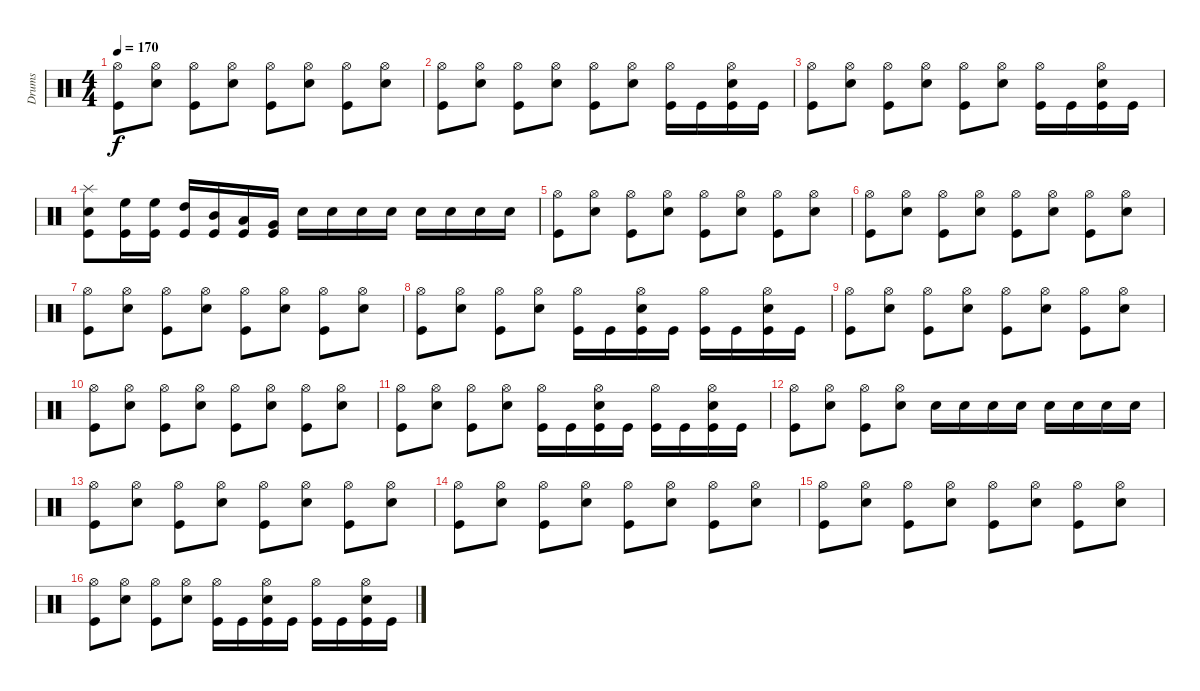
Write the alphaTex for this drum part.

\track ("Drums" "Drums") {instrument percussion}
\staff {score}
\articulation defaults
\ts (4 4)
\tempo 170
\clef neutral
\ks c
("Hi-Hat (open)" "Kick (hit)").8{dy f} ("Hi-Hat (open)" "Snare (hit) 2").8 ("Hi-Hat (open)" "Kick (hit)").8 ("Hi-Hat (open)" "Snare (hit) 2").8 ("Hi-Hat (open)" "Kick (hit)").8 ("Hi-Hat (open)" "Snare (hit) 2").8 ("Hi-Hat (open)" "Kick (hit)").8 ("Hi-Hat (open)" "Snare (hit) 2").8 |
("Hi-Hat (open)" "Kick (hit)").8 ("Hi-Hat (open)" "Snare (hit) 2").8 ("Hi-Hat (open)" "Kick (hit)").8 ("Hi-Hat (open)" "Snare (hit) 2").8 ("Hi-Hat (open)" "Kick (hit)").8 ("Hi-Hat (open)" "Snare (hit) 2").8 ("Hi-Hat (open)" "Kick (hit)").16 "Kick (hit)".16 ("Hi-Hat (open)" "Snare (hit) 2" "Kick (hit)").16 "Kick (hit)".16 |
("Hi-Hat (open)" "Kick (hit)").8 ("Hi-Hat (open)" "Snare (hit) 2").8 ("Hi-Hat (open)" "Kick (hit)").8 ("Hi-Hat (open)" "Snare (hit) 2").8 ("Hi-Hat (open)" "Kick (hit)").8 ("Hi-Hat (open)" "Snare (hit) 2").8 ("Hi-Hat (open)" "Kick (hit)").16 "Kick (hit)".16 ("Hi-Hat (open)" "Snare (hit) 2" "Kick (hit)").16 "Kick (hit)".16 |
("Splash (hit)" "Snare (hit) 2" "Kick (hit)").8 ("High Floor Tom (hit)" "Kick (hit)").16 ("High Floor Tom (hit)" "Kick (hit)").16 ("High Tom (hit)" "Kick (hit)").16 ("Mid Tom (hit)" "Kick (hit)").16 ("Low Tom (hit)" "Kick (hit)").16 ("Very Low Tom (hit)" "Kick (hit)").16 "Snare (hit) 2".16 "Snare (hit) 2".16 "Snare (hit) 2".16 "Snare (hit) 2".16 "Snare (hit) 2".16 "Snare (hit) 2".16 "Snare (hit) 2".16 "Snare (hit) 2".16 |
("Hi-Hat (open)" "Kick (hit)").8 ("Hi-Hat (open)" "Snare (hit) 2").8 ("Hi-Hat (open)" "Kick (hit)").8 ("Hi-Hat (open)" "Snare (hit) 2").8 ("Hi-Hat (open)" "Kick (hit)").8 ("Hi-Hat (open)" "Snare (hit) 2").8 ("Hi-Hat (open)" "Kick (hit)").8 ("Hi-Hat (open)" "Snare (hit) 2").8 |
("Hi-Hat (open)" "Kick (hit)").8 ("Hi-Hat (open)" "Snare (hit) 2").8 ("Hi-Hat (open)" "Kick (hit)").8 ("Hi-Hat (open)" "Snare (hit) 2").8 ("Hi-Hat (open)" "Kick (hit)").8 ("Hi-Hat (open)" "Snare (hit) 2").8 ("Hi-Hat (open)" "Kick (hit)").8 ("Hi-Hat (open)" "Snare (hit) 2").8 |
("Hi-Hat (open)" "Kick (hit)").8 ("Hi-Hat (open)" "Snare (hit) 2").8 ("Hi-Hat (open)" "Kick (hit)").8 ("Hi-Hat (open)" "Snare (hit) 2").8 ("Hi-Hat (open)" "Kick (hit)").8 ("Hi-Hat (open)" "Snare (hit) 2").8 ("Hi-Hat (open)" "Kick (hit)").8 ("Hi-Hat (open)" "Snare (hit) 2").8 |
("Hi-Hat (open)" "Kick (hit)").8 ("Hi-Hat (open)" "Snare (hit) 2").8 ("Hi-Hat (open)" "Kick (hit)").8 ("Hi-Hat (open)" "Snare (hit) 2").8 ("Hi-Hat (open)" "Kick (hit)").16 "Kick (hit)".16 ("Hi-Hat (open)" "Snare (hit) 2" "Kick (hit)").16 "Kick (hit)".16 ("Hi-Hat (open)" "Kick (hit)").16 "Kick (hit)".16 ("Hi-Hat (open)" "Snare (hit) 2" "Kick (hit)").16 "Kick (hit)".16 |
("Hi-Hat (open)" "Kick (hit)").8 ("Hi-Hat (open)" "Snare (hit) 2").8 ("Hi-Hat (open)" "Kick (hit)").8 ("Hi-Hat (open)" "Snare (hit) 2").8 ("Hi-Hat (open)" "Kick (hit)").8 ("Hi-Hat (open)" "Snare (hit) 2").8 ("Hi-Hat (open)" "Kick (hit)").8 ("Hi-Hat (open)" "Snare (hit) 2").8 |
("Hi-Hat (open)" "Kick (hit)").8 ("Hi-Hat (open)" "Snare (hit) 2").8 ("Hi-Hat (open)" "Kick (hit)").8 ("Hi-Hat (open)" "Snare (hit) 2").8 ("Hi-Hat (open)" "Kick (hit)").8 ("Hi-Hat (open)" "Snare (hit) 2").8 ("Hi-Hat (open)" "Kick (hit)").8 ("Hi-Hat (open)" "Snare (hit) 2").8 |
("Hi-Hat (open)" "Kick (hit)").8 ("Hi-Hat (open)" "Snare (hit) 2").8 ("Hi-Hat (open)" "Kick (hit)").8 ("Hi-Hat (open)" "Snare (hit) 2").8 ("Hi-Hat (open)" "Kick (hit)").16 "Kick (hit)".16 ("Hi-Hat (open)" "Snare (hit) 2" "Kick (hit)").16 "Kick (hit)".16 ("Hi-Hat (open)" "Kick (hit)").16 "Kick (hit)".16 ("Hi-Hat (open)" "Snare (hit) 2" "Kick (hit)").16 "Kick (hit)".16 |
("Hi-Hat (open)" "Kick (hit)").8 ("Hi-Hat (open)" "Snare (hit) 2").8 ("Hi-Hat (open)" "Kick (hit)").8 ("Hi-Hat (open)" "Snare (hit) 2").8 "Snare (hit) 2".16 "Snare (hit) 2".16 "Snare (hit) 2".16 "Snare (hit) 2".16 "Snare (hit) 2".16 "Snare (hit) 2".16 "Snare (hit) 2".16 "Snare (hit) 2".16 |
("Hi-Hat (open)" "Kick (hit)").8 ("Hi-Hat (open)" "Snare (hit) 2").8 ("Hi-Hat (open)" "Kick (hit)").8 ("Hi-Hat (open)" "Snare (hit) 2").8 ("Hi-Hat (open)" "Kick (hit)").8 ("Hi-Hat (open)" "Snare (hit) 2").8 ("Hi-Hat (open)" "Kick (hit)").8 ("Hi-Hat (open)" "Snare (hit) 2").8 |
("Hi-Hat (open)" "Kick (hit)").8 ("Hi-Hat (open)" "Snare (hit) 2").8 ("Hi-Hat (open)" "Kick (hit)").8 ("Hi-Hat (open)" "Snare (hit) 2").8 ("Hi-Hat (open)" "Kick (hit)").8 ("Hi-Hat (open)" "Snare (hit) 2").8 ("Hi-Hat (open)" "Kick (hit)").8 ("Hi-Hat (open)" "Snare (hit) 2").8 |
("Hi-Hat (open)" "Kick (hit)").8 ("Hi-Hat (open)" "Snare (hit) 2").8 ("Hi-Hat (open)" "Kick (hit)").8 ("Hi-Hat (open)" "Snare (hit) 2").8 ("Hi-Hat (open)" "Kick (hit)").8 ("Hi-Hat (open)" "Snare (hit) 2").8 ("Hi-Hat (open)" "Kick (hit)").8 ("Hi-Hat (open)" "Snare (hit) 2").8 |
("Hi-Hat (open)" "Kick (hit)").8 ("Hi-Hat (open)" "Snare (hit) 2").8 ("Hi-Hat (open)" "Kick (hit)").8 ("Hi-Hat (open)" "Snare (hit) 2").8 ("Hi-Hat (open)" "Kick (hit)").16 "Kick (hit)".16 ("Hi-Hat (open)" "Snare (hit) 2" "Kick (hit)").16 "Kick (hit)".16 ("Hi-Hat (open)" "Kick (hit)").16 "Kick (hit)".16 ("Hi-Hat (open)" "Snare (hit) 2" "Kick (hit)").16 "Kick (hit)".16
